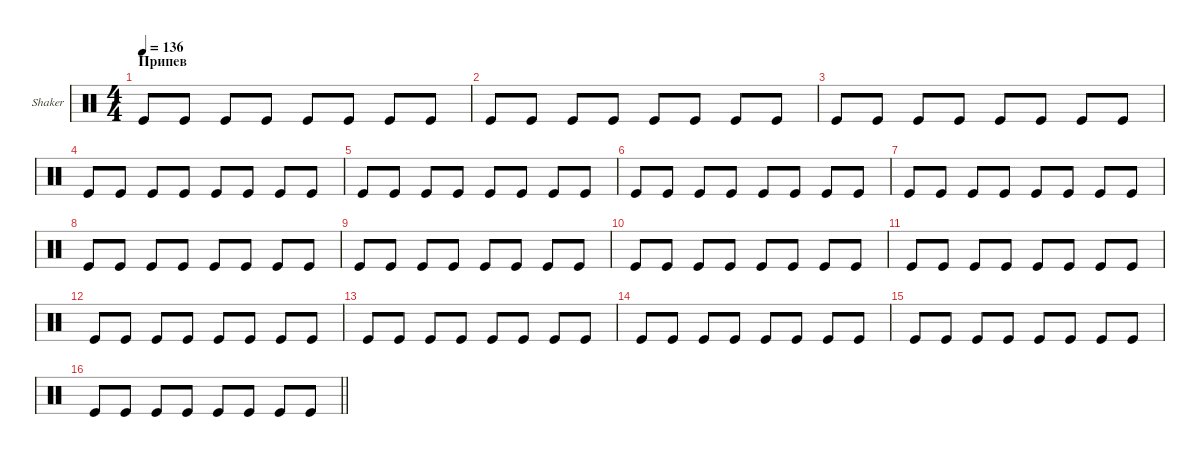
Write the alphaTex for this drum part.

\defaultSystemsLayout 4
\hideDynamics
\bracketExtendMode groupsimilarinstruments
\multiTrackTrackNamePolicy allsystems
\firstSystemTrackNameOrientation horizontal
\otherSystemsTrackNameOrientation horizontal
\track ("Shaker" "Shaker") {instrument percussion}
\staff {score}
\articulation defaults
\ts (4 4)
\section ("" "Припев")
\scale
0.322197
\tempo 136
\accidentals auto
\clef neutral
\ottava regular
\simile none
\ks aminor "Kick (hit)".8{dy mf} "Kick (hit)".8 "Kick (hit)".8 "Kick (hit)".8 "Kick (hit)".8 "Kick (hit)".8 "Kick (hit)".8 "Kick (hit)".8
|
\scale
0.205098 "Kick (hit)".8 "Kick (hit)".8 "Kick (hit)".8 "Kick (hit)".8 "Kick (hit)".8 "Kick (hit)".8 "Kick (hit)".8 "Kick (hit)".8 |
\scale
0.249131 "Kick (hit)".8 "Kick (hit)".8 "Kick (hit)".8 "Kick (hit)".8 "Kick (hit)".8 "Kick (hit)".8 "Kick (hit)".8 "Kick (hit)".8 |
\scale
0.224128 "Kick (hit)".8 "Kick (hit)".8 "Kick (hit)".8 "Kick (hit)".8 "Kick (hit)".8 "Kick (hit)".8 "Kick (hit)".8 "Kick (hit)".8 |
\scale
0.301077 "Kick (hit)".8 "Kick (hit)".8 "Kick (hit)".8 "Kick (hit)".8 "Kick (hit)".8 "Kick (hit)".8 "Kick (hit)".8 "Kick (hit)".8 |
\scale
0.238064 "Kick (hit)".8 "Kick (hit)".8 "Kick (hit)".8 "Kick (hit)".8 "Kick (hit)".8 "Kick (hit)".8 "Kick (hit)".8 "Kick (hit)".8 |
\scale
0.221443 "Kick (hit)".8 "Kick (hit)".8 "Kick (hit)".8 "Kick (hit)".8 "Kick (hit)".8 "Kick (hit)".8 "Kick (hit)".8 "Kick (hit)".8 |
\scale
0.239997 "Kick (hit)".8 "Kick (hit)".8 "Kick (hit)".8 "Kick (hit)".8 "Kick (hit)".8 "Kick (hit)".8 "Kick (hit)".8 "Kick (hit)".8 |
\scale
0.293089 "Kick (hit)".8 "Kick (hit)".8 "Kick (hit)".8 "Kick (hit)".8 "Kick (hit)".8 "Kick (hit)".8 "Kick (hit)".8 "Kick (hit)".8 |
\scale
0.263839 "Kick (hit)".8 "Kick (hit)".8 "Kick (hit)".8 "Kick (hit)".8 "Kick (hit)".8 "Kick (hit)".8 "Kick (hit)".8 "Kick (hit)".8 |
\scale
0.206184 "Kick (hit)".8 "Kick (hit)".8 "Kick (hit)".8 "Kick (hit)".8 "Kick (hit)".8 "Kick (hit)".8 "Kick (hit)".8 "Kick (hit)".8 |
\scale
0.237186 "Kick (hit)".8 "Kick (hit)".8 "Kick (hit)".8 "Kick (hit)".8 "Kick (hit)".8 "Kick (hit)".8 "Kick (hit)".8 "Kick (hit)".8 |
\scale
0.312456 "Kick (hit)".8 "Kick (hit)".8 "Kick (hit)".8 "Kick (hit)".8 "Kick (hit)".8 "Kick (hit)".8 "Kick (hit)".8 "Kick (hit)".8 |
\scale
0.280816 "Kick (hit)".8 "Kick (hit)".8 "Kick (hit)".8 "Kick (hit)".8 "Kick (hit)".8 "Kick (hit)".8 "Kick (hit)".8 "Kick (hit)".8 |
\scale
0.210968 "Kick (hit)".8 "Kick (hit)".8 "Kick (hit)".8 "Kick (hit)".8 "Kick (hit)".8 "Kick (hit)".8 "Kick (hit)".8 "Kick (hit)".8 |
\scale
0.196629
\barLineRight lightlight "Kick (hit)".8 "Kick (hit)".8 "Kick (hit)".8 "Kick (hit)".8 "Kick (hit)".8 "Kick (hit)".8 "Kick (hit)".8 "Kick (hit)".8
